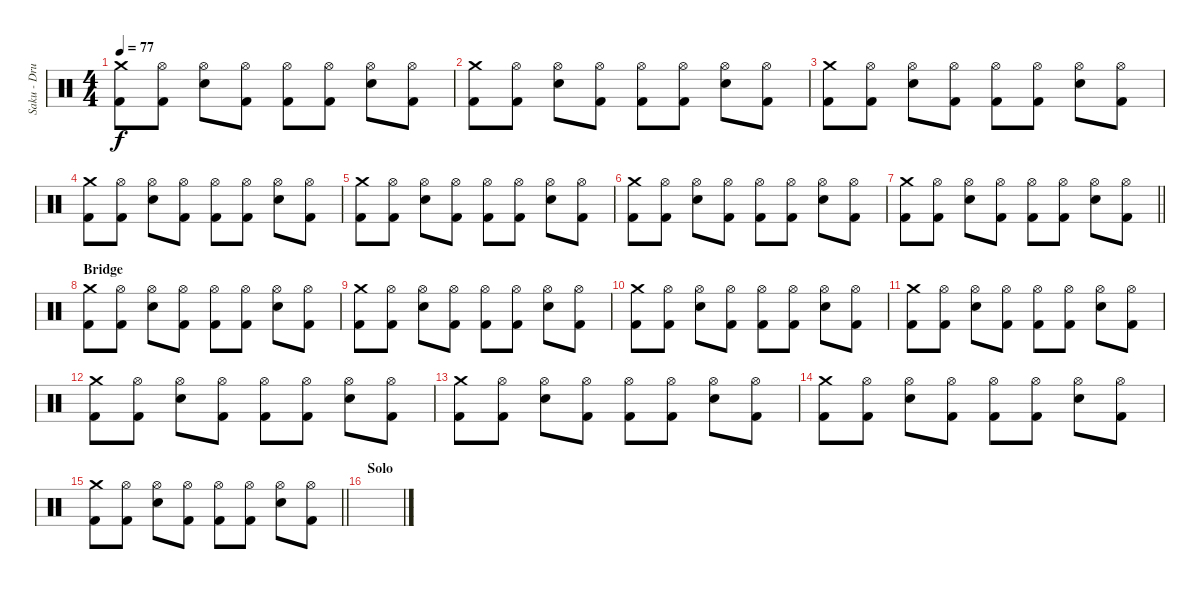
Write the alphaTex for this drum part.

\track ("Saku - Drums" "Saku - Dru") {instrument percussion}
\staff {score}
\articulation defaults
\ts (4 4)
\tempo 77
\clef neutral
\ks c
("Kick (hit) 2" "Crash medium (hit)").8{dy f} ("Kick (hit) 2" "Hi-Hat (open)").8 ("Electric Snare (hit)" "Hi-Hat (open)").8 ("Kick (hit) 2" "Hi-Hat (open)").8 ("Kick (hit) 2" "Hi-Hat (open)").8 ("Kick (hit) 2" "Hi-Hat (open)").8 ("Electric Snare (hit)" "Hi-Hat (open)").8 ("Kick (hit) 2" "Hi-Hat (open)").8 |
("Kick (hit) 2" "Crash medium (hit)").8 ("Kick (hit) 2" "Hi-Hat (open)").8 ("Electric Snare (hit)" "Hi-Hat (open)").8 ("Kick (hit) 2" "Hi-Hat (open)").8 ("Kick (hit) 2" "Hi-Hat (open)").8 ("Kick (hit) 2" "Hi-Hat (open)").8 ("Electric Snare (hit)" "Hi-Hat (open)").8 ("Kick (hit) 2" "Hi-Hat (open)").8 |
("Kick (hit) 2" "Crash medium (hit)").8 ("Kick (hit) 2" "Hi-Hat (open)").8 ("Electric Snare (hit)" "Hi-Hat (open)").8 ("Kick (hit) 2" "Hi-Hat (open)").8 ("Kick (hit) 2" "Hi-Hat (open)").8 ("Kick (hit) 2" "Hi-Hat (open)").8 ("Electric Snare (hit)" "Hi-Hat (open)").8 ("Kick (hit) 2" "Hi-Hat (open)").8 |
("Kick (hit) 2" "Crash medium (hit)").8 ("Kick (hit) 2" "Hi-Hat (open)").8 ("Electric Snare (hit)" "Hi-Hat (open)").8 ("Kick (hit) 2" "Hi-Hat (open)").8 ("Kick (hit) 2" "Hi-Hat (open)").8 ("Kick (hit) 2" "Hi-Hat (open)").8 ("Electric Snare (hit)" "Hi-Hat (open)").8 ("Kick (hit) 2" "Hi-Hat (open)").8 |
("Kick (hit) 2" "Crash medium (hit)").8 ("Kick (hit) 2" "Hi-Hat (open)").8 ("Electric Snare (hit)" "Hi-Hat (open)").8 ("Kick (hit) 2" "Hi-Hat (open)").8 ("Kick (hit) 2" "Hi-Hat (open)").8 ("Kick (hit) 2" "Hi-Hat (open)").8 ("Electric Snare (hit)" "Hi-Hat (open)").8 ("Kick (hit) 2" "Hi-Hat (open)").8 |
("Kick (hit) 2" "Crash medium (hit)").8 ("Kick (hit) 2" "Hi-Hat (open)").8 ("Electric Snare (hit)" "Hi-Hat (open)").8 ("Kick (hit) 2" "Hi-Hat (open)").8 ("Kick (hit) 2" "Hi-Hat (open)").8 ("Kick (hit) 2" "Hi-Hat (open)").8 ("Electric Snare (hit)" "Hi-Hat (open)").8 ("Kick (hit) 2" "Hi-Hat (open)").8 |
\barLineRight lightlight
("Kick (hit) 2" "Crash medium (hit)").8 ("Kick (hit) 2" "Hi-Hat (open)").8 ("Electric Snare (hit)" "Hi-Hat (open)").8 ("Kick (hit) 2" "Hi-Hat (open)").8 ("Kick (hit) 2" "Hi-Hat (open)").8 ("Kick (hit) 2" "Hi-Hat (open)").8 ("Electric Snare (hit)" "Hi-Hat (open)").8 ("Kick (hit) 2" "Hi-Hat (open)").8 |
\section ("" "Bridge")
("Kick (hit) 2" "Crash medium (hit)").8 ("Kick (hit) 2" "Hi-Hat (open)").8 ("Electric Snare (hit)" "Hi-Hat (open)").8 ("Kick (hit) 2" "Hi-Hat (open)").8 ("Kick (hit) 2" "Hi-Hat (open)").8 ("Kick (hit) 2" "Hi-Hat (open)").8 ("Electric Snare (hit)" "Hi-Hat (open)").8 ("Kick (hit) 2" "Hi-Hat (open)").8 |
("Kick (hit) 2" "Crash medium (hit)").8 ("Kick (hit) 2" "Hi-Hat (open)").8 ("Electric Snare (hit)" "Hi-Hat (open)").8 ("Kick (hit) 2" "Hi-Hat (open)").8 ("Kick (hit) 2" "Hi-Hat (open)").8 ("Kick (hit) 2" "Hi-Hat (open)").8 ("Electric Snare (hit)" "Hi-Hat (open)").8 ("Kick (hit) 2" "Hi-Hat (open)").8 |
("Kick (hit) 2" "Crash medium (hit)").8 ("Kick (hit) 2" "Hi-Hat (open)").8 ("Electric Snare (hit)" "Hi-Hat (open)").8 ("Kick (hit) 2" "Hi-Hat (open)").8 ("Kick (hit) 2" "Hi-Hat (open)").8 ("Kick (hit) 2" "Hi-Hat (open)").8 ("Electric Snare (hit)" "Hi-Hat (open)").8 ("Kick (hit) 2" "Hi-Hat (open)").8 |
("Kick (hit) 2" "Crash medium (hit)").8 ("Kick (hit) 2" "Hi-Hat (open)").8 ("Electric Snare (hit)" "Hi-Hat (open)").8 ("Kick (hit) 2" "Hi-Hat (open)").8 ("Kick (hit) 2" "Hi-Hat (open)").8 ("Kick (hit) 2" "Hi-Hat (open)").8 ("Electric Snare (hit)" "Hi-Hat (open)").8 ("Kick (hit) 2" "Hi-Hat (open)").8 |
("Kick (hit) 2" "Crash medium (hit)").8 ("Kick (hit) 2" "Hi-Hat (open)").8 ("Electric Snare (hit)" "Hi-Hat (open)").8 ("Kick (hit) 2" "Hi-Hat (open)").8 ("Kick (hit) 2" "Hi-Hat (open)").8 ("Kick (hit) 2" "Hi-Hat (open)").8 ("Electric Snare (hit)" "Hi-Hat (open)").8 ("Kick (hit) 2" "Hi-Hat (open)").8 |
("Kick (hit) 2" "Crash medium (hit)").8 ("Kick (hit) 2" "Hi-Hat (open)").8 ("Electric Snare (hit)" "Hi-Hat (open)").8 ("Kick (hit) 2" "Hi-Hat (open)").8 ("Kick (hit) 2" "Hi-Hat (open)").8 ("Kick (hit) 2" "Hi-Hat (open)").8 ("Electric Snare (hit)" "Hi-Hat (open)").8 ("Kick (hit) 2" "Hi-Hat (open)").8 |
("Kick (hit) 2" "Crash medium (hit)").8 ("Kick (hit) 2" "Hi-Hat (open)").8 ("Electric Snare (hit)" "Hi-Hat (open)").8 ("Kick (hit) 2" "Hi-Hat (open)").8 ("Kick (hit) 2" "Hi-Hat (open)").8 ("Kick (hit) 2" "Hi-Hat (open)").8 ("Electric Snare (hit)" "Hi-Hat (open)").8 ("Kick (hit) 2" "Hi-Hat (open)").8 |
\barLineRight lightlight
("Kick (hit) 2" "Crash medium (hit)").8 ("Kick (hit) 2" "Hi-Hat (open)").8 ("Electric Snare (hit)" "Hi-Hat (open)").8 ("Kick (hit) 2" "Hi-Hat (open)").8 ("Kick (hit) 2" "Hi-Hat (open)").8 ("Kick (hit) 2" "Hi-Hat (open)").8 ("Electric Snare (hit)" "Hi-Hat (open)").8 ("Kick (hit) 2" "Hi-Hat (open)").8 |
\section ("" "Solo")
